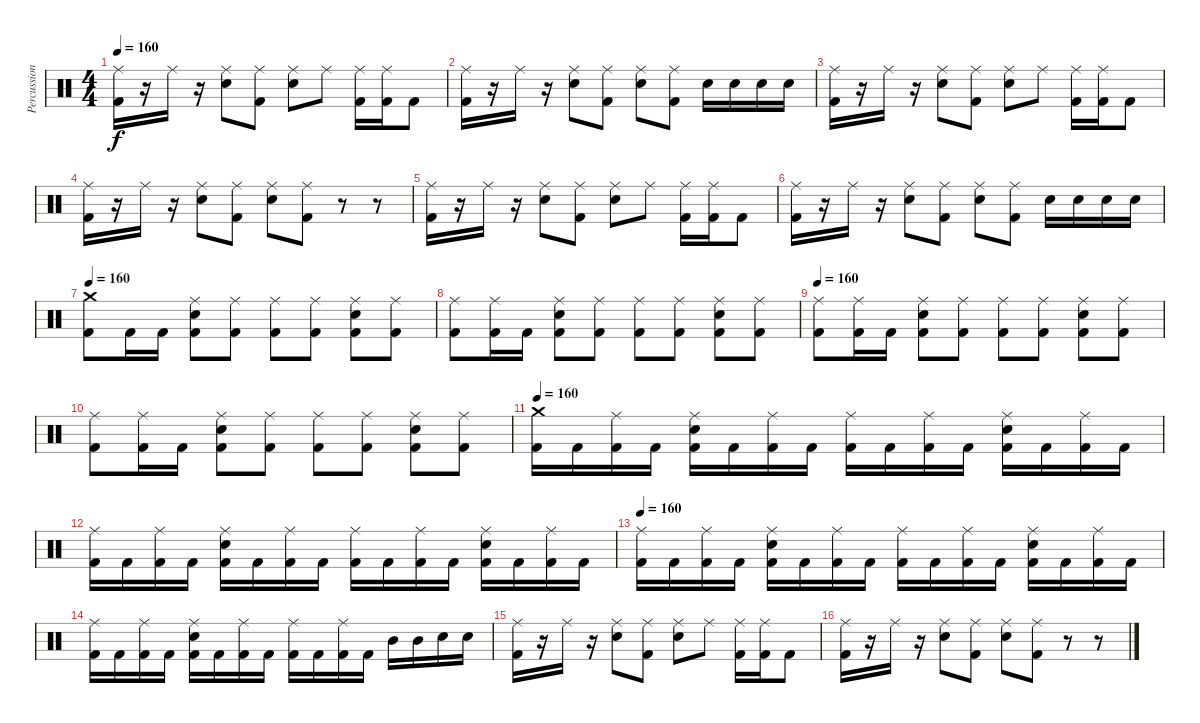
\track ("Percussions" "Percussion") {instrument percussion}
\staff {score}
\articulation defaults
\ts (4 4)
\tempo 160
\clef neutral
\ks c
("Kick (hit) 2" "Ride (middle)").16{dy f} r.16 "Ride (middle)".16 r.16 ("Electric Snare (hit)" "Ride (middle)").8 ("Kick (hit) 2" "Ride (middle)").8 ("Electric Snare (hit)" "Ride (middle)").8 "Ride (middle)".8 ("Kick (hit) 2" "Ride (middle)").16 ("Kick (hit) 2" "Ride (middle)").16 "Kick (hit) 2".8 |
("Kick (hit) 2" "Ride (middle)").16 r.16 "Ride (middle)".16 r.16 ("Electric Snare (hit)" "Ride (middle)").8 ("Kick (hit) 2" "Ride (middle)").8 ("Electric Snare (hit)" "Ride (middle)").8 ("Kick (hit) 2" "Ride (middle)").8 "Electric Snare (hit)".16 "Electric Snare (hit)".16 "Snare (hit) 2".16 "Snare (hit) 2".16 |
("Kick (hit) 2" "Ride (middle)").16 r.16 "Ride (middle)".16 r.16 ("Electric Snare (hit)" "Ride (middle)").8 ("Kick (hit) 2" "Ride (middle)").8 ("Electric Snare (hit)" "Ride (middle)").8 "Ride (middle)".8 ("Kick (hit) 2" "Ride (middle)").16 ("Kick (hit) 2" "Ride (middle)").16 "Kick (hit) 2".8 |
("Kick (hit) 2" "Ride (middle)").16 r.16 "Ride (middle)".16 r.16 ("Electric Snare (hit)" "Ride (middle)").8 ("Kick (hit) 2" "Ride (middle)").8 ("Electric Snare (hit)" "Ride (middle)").8 ("Kick (hit) 2" "Ride (middle)").8 r.8 r.8 |
("Kick (hit) 2" "Ride (middle)").16 r.16 "Ride (middle)".16 r.16 ("Electric Snare (hit)" "Ride (middle)").8 ("Kick (hit) 2" "Ride (middle)").8 ("Electric Snare (hit)" "Ride (middle)").8 "Ride (middle)".8 ("Kick (hit) 2" "Ride (middle)").16 ("Kick (hit) 2" "Ride (middle)").16 "Kick (hit) 2".8 |
("Kick (hit) 2" "Ride (middle)").16 r.16 "Ride (middle)".16 r.16 ("Electric Snare (hit)" "Ride (middle)").8 ("Kick (hit) 2" "Ride (middle)").8 ("Electric Snare (hit)" "Ride (middle)").8 ("Kick (hit) 2" "Ride (middle)").8 "Electric Snare (hit)".16 "Electric Snare (hit)".16 "Snare (hit) 2".16 "Snare (hit) 2".16 |
\tempo 160
("Kick (hit) 2" "Crash medium (hit)").8 "Kick (hit) 2".16 "Kick (hit) 2".16 ("Kick (hit) 2" "Electric Snare (hit)" "Ride (middle)").8 ("Kick (hit) 2" "Ride (middle)").8 ("Kick (hit) 2" "Ride (middle)").8 ("Kick (hit) 2" "Ride (middle)").8 ("Kick (hit) 2" "Electric Snare (hit)" "Ride (middle)").8 ("Kick (hit) 2" "Ride (middle)").8 |
("Kick (hit) 2" "Ride (middle)").8 ("Kick (hit) 2" "Ride (middle)").16 "Kick (hit) 2".16 ("Kick (hit) 2" "Electric Snare (hit)" "Ride (middle)").8 ("Kick (hit) 2" "Ride (middle)").8 ("Kick (hit) 2" "Ride (middle)").8 ("Kick (hit) 2" "Ride (middle)").8 ("Kick (hit) 2" "Electric Snare (hit)" "Ride (middle)").8 ("Kick (hit) 2" "Ride (middle)").8 |
\tempo 160
("Kick (hit) 2" "Ride (middle)").8 ("Kick (hit) 2" "Ride (middle)").16 "Kick (hit) 2".16 ("Kick (hit) 2" "Electric Snare (hit)" "Ride (middle)").8 ("Kick (hit) 2" "Ride (middle)").8 ("Kick (hit) 2" "Ride (middle)").8 ("Kick (hit) 2" "Ride (middle)").8 ("Kick (hit) 2" "Electric Snare (hit)" "Ride (middle)").8 ("Kick (hit) 2" "Ride (middle)").8 |
("Kick (hit) 2" "Ride (middle)").8 ("Kick (hit) 2" "Ride (middle)").16 "Kick (hit) 2".16 ("Kick (hit) 2" "Electric Snare (hit)" "Ride (middle)").8 ("Kick (hit) 2" "Ride (middle)").8 ("Kick (hit) 2" "Ride (middle)").8 ("Kick (hit) 2" "Ride (middle)").8 ("Kick (hit) 2" "Electric Snare (hit)" "Ride (middle)").8 ("Kick (hit) 2" "Ride (middle)").8 |
\tempo 160
("Kick (hit) 2" "Crash medium (hit)").16 "Kick (hit) 2".16 ("Kick (hit) 2" "Ride (middle)").16 "Kick (hit) 2".16 ("Kick (hit) 2" "Electric Snare (hit)" "Ride (middle)").16 "Kick (hit) 2".16 ("Kick (hit) 2" "Ride (middle)").16 "Kick (hit) 2".16 ("Kick (hit) 2" "Ride (middle)").16 "Kick (hit) 2".16 ("Kick (hit) 2" "Ride (middle)").16 "Kick (hit) 2".16 ("Kick (hit) 2" "Electric Snare (hit)" "Ride (middle)").16 "Kick (hit) 2".16 ("Kick (hit) 2" "Ride (middle)").16 "Kick (hit) 2".16 |
("Kick (hit) 2" "Ride (middle)").16 "Kick (hit) 2".16 ("Kick (hit) 2" "Ride (middle)").16 "Kick (hit) 2".16 ("Kick (hit) 2" "Electric Snare (hit)" "Ride (middle)").16 "Kick (hit) 2".16 ("Kick (hit) 2" "Ride (middle)").16 "Kick (hit) 2".16 ("Kick (hit) 2" "Ride (middle)").16 "Kick (hit) 2".16 ("Kick (hit) 2" "Ride (middle)").16 "Kick (hit) 2".16 ("Kick (hit) 2" "Electric Snare (hit)" "Ride (middle)").16 "Kick (hit) 2".16 ("Kick (hit) 2" "Ride (middle)").16 "Kick (hit) 2".16 |
\tempo 160
("Kick (hit) 2" "Ride (middle)").16 "Kick (hit) 2".16 ("Kick (hit) 2" "Ride (middle)").16 "Kick (hit) 2".16 ("Kick (hit) 2" "Electric Snare (hit)" "Ride (middle)").16 "Kick (hit) 2".16 ("Kick (hit) 2" "Ride (middle)").16 "Kick (hit) 2".16 ("Kick (hit) 2" "Ride (middle)").16 "Kick (hit) 2".16 ("Kick (hit) 2" "Ride (middle)").16 "Kick (hit) 2".16 ("Kick (hit) 2" "Electric Snare (hit)" "Ride (middle)").16 "Kick (hit) 2".16 ("Kick (hit) 2" "Ride (middle)").16 "Kick (hit) 2".16 |
("Kick (hit) 2" "Ride (middle)").16 "Kick (hit) 2".16 ("Kick (hit) 2" "Ride (middle)").16 "Kick (hit) 2".16 ("Kick (hit) 2" "Electric Snare (hit)" "Ride (middle)").16 "Kick (hit) 2".16 ("Kick (hit) 2" "Ride (middle)").16 "Kick (hit) 2".16 ("Kick (hit) 2" "Ride (middle)").16 "Kick (hit) 2".16 ("Kick (hit) 2" "Ride (middle)").16 "Kick (hit) 2".16 "Mid Tom (hit)".16 "Mid Tom (hit)".16 "Electric Snare (hit)".16 "Snare (hit) 2".16 |
("Kick (hit) 2" "Ride (middle)").16 r.16 "Ride (middle)".16 r.16 ("Electric Snare (hit)" "Ride (middle)").8 ("Kick (hit) 2" "Ride (middle)").8 ("Electric Snare (hit)" "Ride (middle)").8 "Ride (middle)".8 ("Kick (hit) 2" "Ride (middle)").16 ("Kick (hit) 2" "Ride (middle)").16 "Kick (hit) 2".8 |
("Kick (hit) 2" "Ride (middle)").16 r.16 "Ride (middle)".16 r.16 ("Electric Snare (hit)" "Ride (middle)").8 ("Kick (hit) 2" "Ride (middle)").8 ("Electric Snare (hit)" "Ride (middle)").8 ("Kick (hit) 2" "Ride (middle)").8 r.8 r.8
